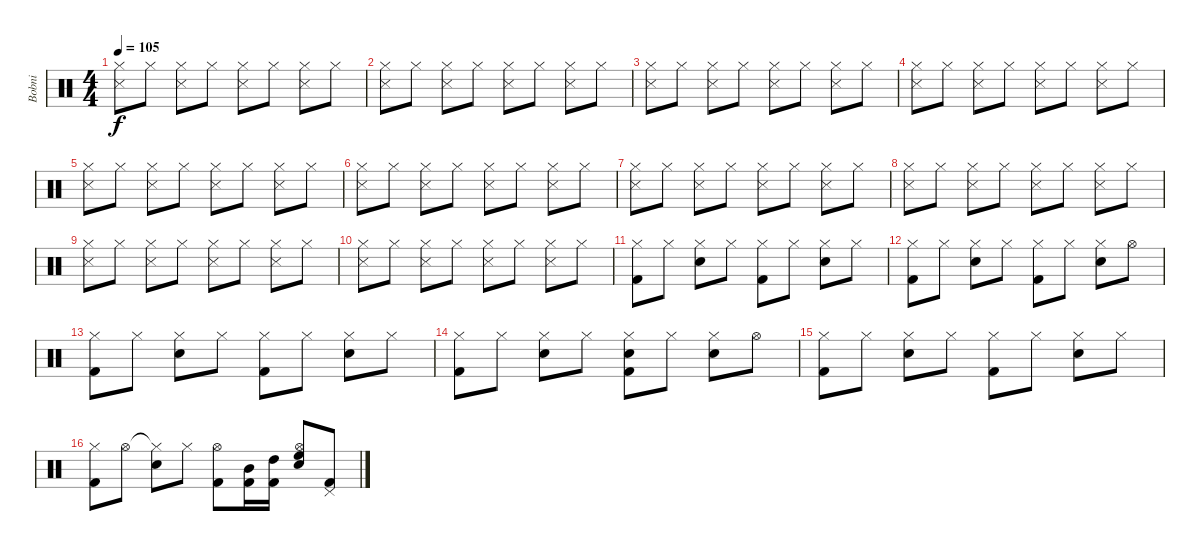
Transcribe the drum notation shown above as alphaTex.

\track ("Bobni" "Bobni") {instrument percussion}
\staff {score}
\articulation defaults
\ts (4 4)
\tempo 105
\clef neutral
\ks c
("Hi-Hat (closed)" "Snare (side stick) 3").8{dy f} "Hi-Hat (closed)".8 ("Hi-Hat (closed)" "Snare (side stick) 3").8 "Hi-Hat (closed)".8 ("Hi-Hat (closed)" "Snare (side stick) 3").8 "Hi-Hat (closed)".8 ("Hi-Hat (closed)" "Snare (side stick) 3").8 "Hi-Hat (closed)".8 |
("Hi-Hat (closed)" "Snare (side stick) 3").8 "Hi-Hat (closed)".8 ("Hi-Hat (closed)" "Snare (side stick) 3").8 "Hi-Hat (closed)".8 ("Hi-Hat (closed)" "Snare (side stick) 3").8 "Hi-Hat (closed)".8 ("Hi-Hat (closed)" "Snare (side stick) 3").8 "Hi-Hat (closed)".8 |
("Hi-Hat (closed)" "Snare (side stick) 3").8 "Hi-Hat (closed)".8 ("Hi-Hat (closed)" "Snare (side stick) 3").8 "Hi-Hat (closed)".8 ("Hi-Hat (closed)" "Snare (side stick) 3").8 "Hi-Hat (closed)".8 ("Hi-Hat (closed)" "Snare (side stick) 3").8 "Hi-Hat (closed)".8 |
("Hi-Hat (closed)" "Snare (side stick) 3").8 "Hi-Hat (closed)".8 ("Hi-Hat (closed)" "Snare (side stick) 3").8 "Hi-Hat (closed)".8 ("Hi-Hat (closed)" "Snare (side stick) 3").8 "Hi-Hat (closed)".8 ("Hi-Hat (closed)" "Snare (side stick) 3").8 "Hi-Hat (closed)".8 |
("Hi-Hat (closed)" "Snare (side stick) 3").8 "Hi-Hat (closed)".8 ("Hi-Hat (closed)" "Snare (side stick) 3").8 "Hi-Hat (closed)".8 ("Hi-Hat (closed)" "Snare (side stick) 3").8 "Hi-Hat (closed)".8 ("Hi-Hat (closed)" "Snare (side stick) 3").8 "Hi-Hat (closed)".8 |
("Hi-Hat (closed)" "Snare (side stick) 3").8 "Hi-Hat (closed)".8 ("Hi-Hat (closed)" "Snare (side stick) 3").8 "Hi-Hat (closed)".8 ("Hi-Hat (closed)" "Snare (side stick) 3").8 "Hi-Hat (closed)".8 ("Hi-Hat (closed)" "Snare (side stick) 3").8 "Hi-Hat (closed)".8 |
("Hi-Hat (closed)" "Snare (side stick) 3").8 "Hi-Hat (closed)".8 ("Hi-Hat (closed)" "Snare (side stick) 3").8 "Hi-Hat (closed)".8 ("Hi-Hat (closed)" "Snare (side stick) 3").8 "Hi-Hat (closed)".8 ("Hi-Hat (closed)" "Snare (side stick) 3").8 "Hi-Hat (closed)".8 |
("Hi-Hat (closed)" "Snare (side stick) 3").8 "Hi-Hat (closed)".8 ("Hi-Hat (closed)" "Snare (side stick) 3").8 "Hi-Hat (closed)".8 ("Hi-Hat (closed)" "Snare (side stick) 3").8 "Hi-Hat (closed)".8 ("Hi-Hat (closed)" "Snare (side stick) 3").8 "Hi-Hat (closed)".8 |
("Hi-Hat (closed)" "Snare (side stick) 3").8 "Hi-Hat (closed)".8 ("Hi-Hat (closed)" "Snare (side stick) 3").8 "Hi-Hat (closed)".8 ("Hi-Hat (closed)" "Snare (side stick) 3").8 "Hi-Hat (closed)".8 ("Hi-Hat (closed)" "Snare (side stick) 3").8 "Hi-Hat (closed)".8 |
("Hi-Hat (closed)" "Snare (side stick) 3").8 "Hi-Hat (closed)".8 ("Hi-Hat (closed)" "Snare (side stick) 3").8 "Hi-Hat (closed)".8 ("Hi-Hat (closed)" "Snare (side stick) 3").8 "Hi-Hat (closed)".8 ("Hi-Hat (closed)" "Snare (side stick) 3").8 "Hi-Hat (closed)".8 |
("Hi-Hat (closed)" "Kick (hit) 2").8{volume 16} "Hi-Hat (closed)".8 ("Hi-Hat (closed)" "Snare (hit) 2").8 "Hi-Hat (closed)".8 ("Hi-Hat (closed)" "Kick (hit) 2").8 "Hi-Hat (closed)".8 ("Hi-Hat (closed)" "Snare (hit) 2").8 "Hi-Hat (closed)".8 |
("Hi-Hat (closed)" "Kick (hit) 2").8 "Hi-Hat (closed)".8 ("Hi-Hat (closed)" "Snare (hit) 2").8 "Hi-Hat (closed)".8 ("Hi-Hat (closed)" "Kick (hit) 2").8 "Hi-Hat (closed)".8 ("Hi-Hat (closed)" "Snare (hit) 2").8 "Hi-Hat (open)".8 |
("Hi-Hat (closed)" "Kick (hit) 2").8 "Hi-Hat (closed)".8 ("Hi-Hat (closed)" "Snare (hit) 2").8 "Hi-Hat (closed)".8 ("Hi-Hat (closed)" "Kick (hit) 2").8 "Hi-Hat (closed)".8 ("Hi-Hat (closed)" "Snare (hit) 2").8 "Hi-Hat (closed)".8 |
("Hi-Hat (closed)" "Kick (hit) 2").8 "Hi-Hat (closed)".8 ("Hi-Hat (closed)" "Snare (hit) 2").8 "Hi-Hat (closed)".8 ("Hi-Hat (closed)" "Snare (hit) 2" "Kick (hit) 2").8 "Hi-Hat (closed)".8 ("Hi-Hat (closed)" "Snare (hit) 2").8 "Hi-Hat (open)".8 |
("Hi-Hat (closed)" "Kick (hit) 2").8 "Hi-Hat (closed)".8 ("Hi-Hat (closed)" "Snare (hit) 2").8 "Hi-Hat (closed)".8 ("Hi-Hat (closed)" "Kick (hit) 2").8 "Hi-Hat (closed)".8 ("Hi-Hat (closed)" "Snare (hit) 2").8 "Hi-Hat (closed)".8 |
("Hi-Hat (closed)" "Kick (hit) 2").8 "Hi-Hat (open)".8 ("Hi-Hat (closed)"{t} "Snare (hit) 2").8 "Hi-Hat (closed)".8 ("Hi-Hat (open)" "Kick (hit) 2").8 ("Kick (hit) 2" "Mid Tom (hit)").16 ("Kick (hit) 2" "High Tom (hit)").16 ("Hi-Hat (open)" "Snare (hit) 2" "High Floor Tom (hit)").8 ("Pedal Hi-Hat (hit)" "Kick (hit) 2").8
